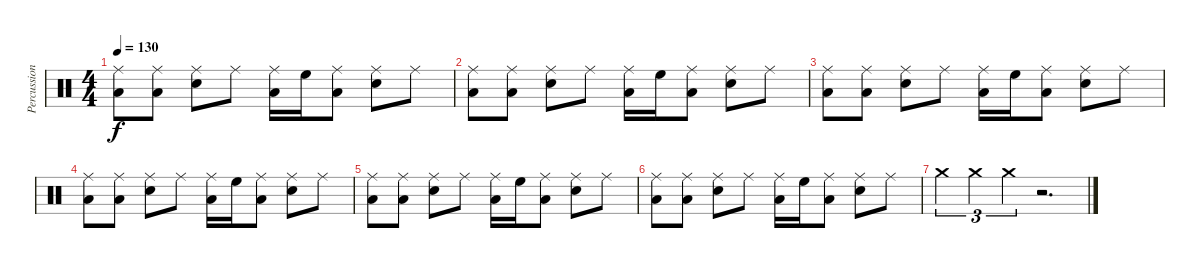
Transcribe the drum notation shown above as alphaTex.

\track ("Percussions" "Percussion") {instrument percussion}
\staff {score}
\articulation defaults
\ts (4 4)
\tempo 130
\clef neutral
\ks c
("Low Floor Tom (hit)" "Ride (middle)").8{dy f} ("Low Floor Tom (hit)" "Ride (middle)").8 ("Electric Snare (hit)" "Ride (middle)").8 "Ride (middle)".8 ("Low Floor Tom (hit)" "Ride (middle)").16 "High Floor Tom (hit)".16 ("Low Floor Tom (hit)" "Ride (middle)").8 ("Electric Snare (hit)" "Ride (middle)").8 "Ride (middle)".8 |
("Low Floor Tom (hit)" "Ride (middle)").8 ("Low Floor Tom (hit)" "Ride (middle)").8 ("Electric Snare (hit)" "Ride (middle)").8 "Ride (middle)".8 ("Low Floor Tom (hit)" "Ride (middle)").16 "High Floor Tom (hit)".16 ("Low Floor Tom (hit)" "Ride (middle)").8 ("Electric Snare (hit)" "Ride (middle)").8 "Ride (middle)".8 |
("Low Floor Tom (hit)" "Ride (middle)").8 ("Low Floor Tom (hit)" "Ride (middle)").8 ("Electric Snare (hit)" "Ride (middle)").8 "Ride (middle)".8 ("Low Floor Tom (hit)" "Ride (middle)").16 "High Floor Tom (hit)".16 ("Low Floor Tom (hit)" "Ride (middle)").8 ("Electric Snare (hit)" "Ride (middle)").8 "Ride (middle)".8 |
("Low Floor Tom (hit)" "Ride (middle)").8 ("Low Floor Tom (hit)" "Ride (middle)").8 ("Electric Snare (hit)" "Ride (middle)").8 "Ride (middle)".8 ("Low Floor Tom (hit)" "Ride (middle)").16 "High Floor Tom (hit)".16 ("Low Floor Tom (hit)" "Ride (middle)").8 ("Electric Snare (hit)" "Ride (middle)").8 "Ride (middle)".8 |
("Low Floor Tom (hit)" "Ride (middle)").8 ("Low Floor Tom (hit)" "Ride (middle)").8 ("Electric Snare (hit)" "Ride (middle)").8 "Ride (middle)".8 ("Low Floor Tom (hit)" "Ride (middle)").16 "High Floor Tom (hit)".16 ("Low Floor Tom (hit)" "Ride (middle)").8 ("Electric Snare (hit)" "Ride (middle)").8 "Ride (middle)".8 |
("Low Floor Tom (hit)" "Ride (middle)").8 ("Low Floor Tom (hit)" "Ride (middle)").8 ("Electric Snare (hit)" "Ride (middle)").8 "Ride (middle)".8 ("Low Floor Tom (hit)" "Ride (middle)").16 "High Floor Tom (hit)".16 ("Low Floor Tom (hit)" "Ride (middle)").8 ("Electric Snare (hit)" "Ride (middle)").8 "Ride (middle)".8 |
"Crash medium (hit)".4{tu (3 2)} "Crash medium (hit)".4{tu (3 2)} "Crash medium (hit)".4{tu (3 2)} r.2{d}
